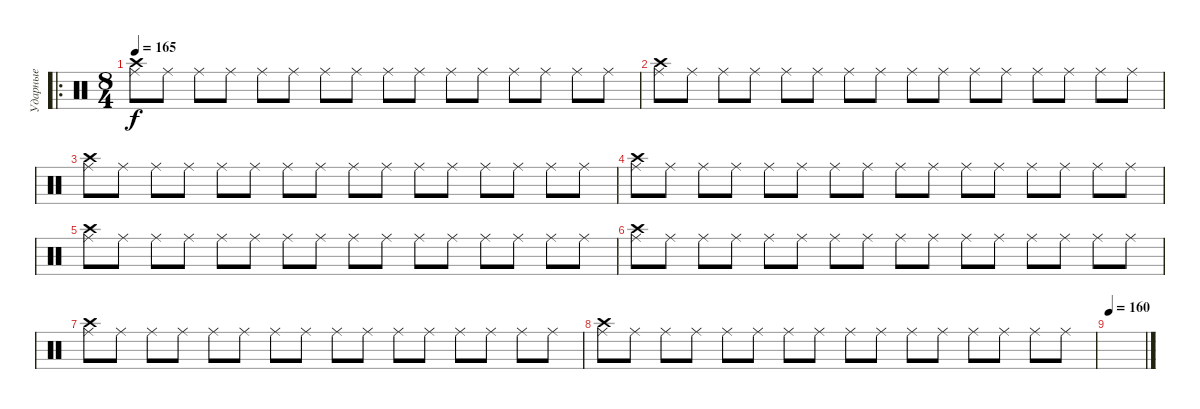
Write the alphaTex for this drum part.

\track ("Ударные" "Ударные") {instrument percussion}
\staff {score}
\articulation defaults
\ro
\ts (8 4)
\tempo 165
\clef neutral
\ks c
("Ride (middle)" "Crash high (hit)").8{dy f} "Ride (middle)".8 "Ride (middle)".8 "Ride (middle)".8 "Ride (middle)".8 "Ride (middle)".8 "Ride (middle)".8 "Ride (middle)".8 "Ride (middle)".8 "Ride (middle)".8 "Ride (middle)".8 "Ride (middle)".8 "Ride (middle)".8 "Ride (middle)".8 "Ride (middle)".8 "Ride (middle)".8 |
("Ride (middle)" "Crash high (hit)").8 "Ride (middle)".8 "Ride (middle)".8 "Ride (middle)".8 "Ride (middle)".8 "Ride (middle)".8 "Ride (middle)".8 "Ride (middle)".8 "Ride (middle)".8 "Ride (middle)".8 "Ride (middle)".8 "Ride (middle)".8 "Ride (middle)".8 "Ride (middle)".8 "Ride (middle)".8 "Ride (middle)".8 |
("Ride (middle)" "Crash high (hit)").8 "Ride (middle)".8 "Ride (middle)".8 "Ride (middle)".8 "Ride (middle)".8 "Ride (middle)".8 "Ride (middle)".8 "Ride (middle)".8 "Ride (middle)".8 "Ride (middle)".8 "Ride (middle)".8 "Ride (middle)".8 "Ride (middle)".8 "Ride (middle)".8 "Ride (middle)".8 "Ride (middle)".8 |
("Ride (middle)" "Crash high (hit)").8 "Ride (middle)".8 "Ride (middle)".8 "Ride (middle)".8 "Ride (middle)".8 "Ride (middle)".8 "Ride (middle)".8 "Ride (middle)".8 "Ride (middle)".8 "Ride (middle)".8 "Ride (middle)".8 "Ride (middle)".8 "Ride (middle)".8 "Ride (middle)".8 "Ride (middle)".8 "Ride (middle)".8 |
("Ride (middle)" "Crash high (hit)").8 "Ride (middle)".8 "Ride (middle)".8 "Ride (middle)".8 "Ride (middle)".8 "Ride (middle)".8 "Ride (middle)".8 "Ride (middle)".8 "Ride (middle)".8 "Ride (middle)".8 "Ride (middle)".8 "Ride (middle)".8 "Ride (middle)".8 "Ride (middle)".8 "Ride (middle)".8 "Ride (middle)".8 |
("Ride (middle)" "Crash high (hit)").8 "Ride (middle)".8 "Ride (middle)".8 "Ride (middle)".8 "Ride (middle)".8 "Ride (middle)".8 "Ride (middle)".8 "Ride (middle)".8 "Ride (middle)".8 "Ride (middle)".8 "Ride (middle)".8 "Ride (middle)".8 "Ride (middle)".8 "Ride (middle)".8 "Ride (middle)".8 "Ride (middle)".8 |
("Ride (middle)" "Crash high (hit)").8 "Ride (middle)".8 "Ride (middle)".8 "Ride (middle)".8 "Ride (middle)".8 "Ride (middle)".8 "Ride (middle)".8 "Ride (middle)".8 "Ride (middle)".8 "Ride (middle)".8 "Ride (middle)".8 "Ride (middle)".8 "Ride (middle)".8 "Ride (middle)".8 "Ride (middle)".8 "Ride (middle)".8 |
("Ride (middle)" "Crash high (hit)").8 "Ride (middle)".8 "Ride (middle)".8 "Ride (middle)".8 "Ride (middle)".8 "Ride (middle)".8 "Ride (middle)".8 "Ride (middle)".8 "Ride (middle)".8 "Ride (middle)".8 "Ride (middle)".8 "Ride (middle)".8 "Ride (middle)".8 "Ride (middle)".8 "Ride (middle)".8 "Ride (middle)".8 |
\tempo 160
